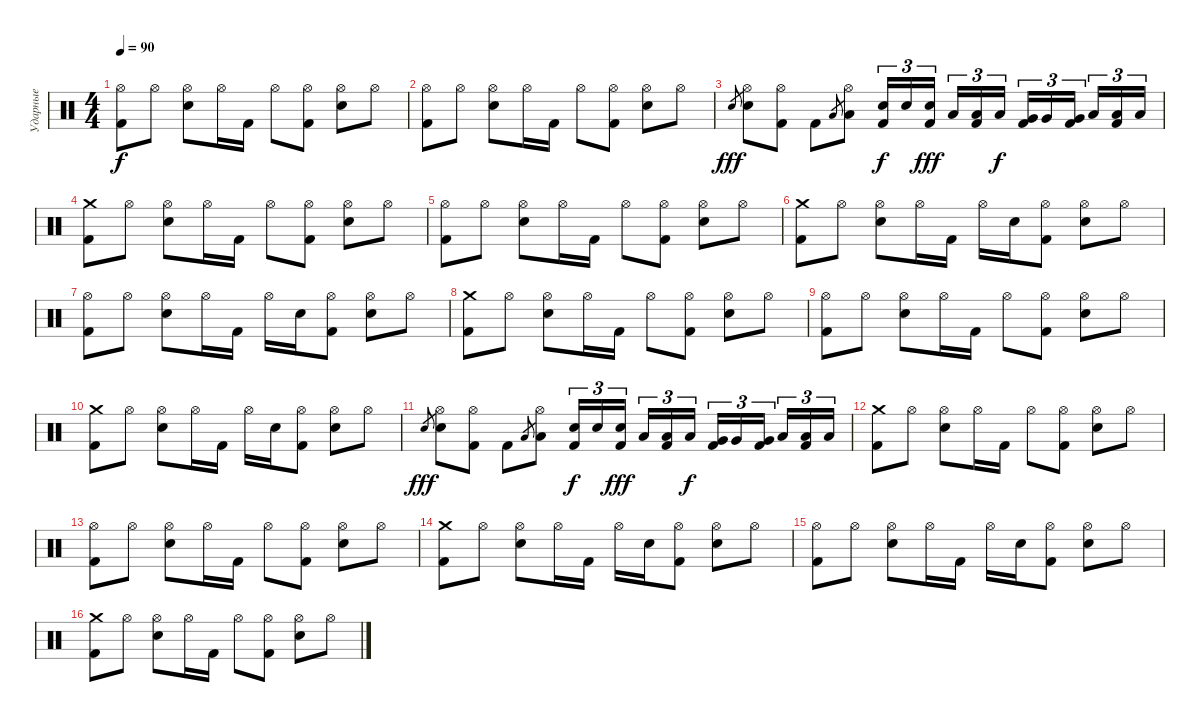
\track ("Ударные" "Ударные") {instrument percussion}
\staff {score}
\articulation defaults
\ts (4 4)
\tempo 90
\clef neutral
\ks c
("Hi-Hat (open)" "Kick (hit) 2").8{dy f} "Hi-Hat (open)".8 ("Hi-Hat (open)" "Snare (hit) 2").8 "Hi-Hat (open)".16 "Kick (hit) 2".16 "Hi-Hat (open)".8 ("Hi-Hat (open)" "Kick (hit) 2").8 ("Hi-Hat (open)" "Snare (hit) 2").8 "Hi-Hat (open)".8 |
("Hi-Hat (open)" "Kick (hit) 2").8 "Hi-Hat (open)".8 ("Hi-Hat (open)" "Snare (hit) 2").8 "Hi-Hat (open)".16 "Kick (hit) 2".16 "Hi-Hat (open)".8 ("Hi-Hat (open)" "Kick (hit) 2").8 ("Hi-Hat (open)" "Snare (hit) 2").8 "Hi-Hat (open)".8 |
"Snare (hit) 2".8{gr dy fff} ("Hi-Hat (open)" "Snare (hit) 2").8 ("Hi-Hat (open)" "Kick (hit) 2").8 "Kick (hit) 2".8 "Low Tom (hit)".8{gr} ("Hi-Hat (open)" "Low Tom (hit)").8 ("Snare (hit) 2" "Kick (hit) 2").16{tu (3 2) dy f} "Snare (hit) 2".16{tu (3 2)} ("Snare (hit) 2" "Kick (hit) 2").16{tu (3 2) dy fff beam splitsecondary} "Low Tom (hit)".16{tu (3 2)} ("Low Tom (hit)" "Kick (hit) 2").16{tu (3 2)} "Low Tom (hit)".16{tu (3 2) dy f} ("Very Low Tom (hit)" "Kick (hit) 2").16{tu (3 2)} "Very Low Tom (hit)".16{tu (3 2)} ("Very Low Tom (hit)" "Kick (hit) 2").16{tu (3 2) beam splitsecondary} "Low Floor Tom (hit)".16{tu (3 2)} ("Low Floor Tom (hit)" "Kick (hit) 2").16{tu (3 2)} "Low Floor Tom (hit)".16{tu (3 2)} |
("Crash medium (hit)" "Kick (hit) 2").8 "Hi-Hat (open)".8 ("Hi-Hat (open)" "Snare (hit) 2").8 "Hi-Hat (open)".16 "Kick (hit) 2".16 "Hi-Hat (open)".8 ("Hi-Hat (open)" "Kick (hit) 2").8 ("Hi-Hat (open)" "Snare (hit) 2").8 "Hi-Hat (open)".8 |
("Hi-Hat (open)" "Kick (hit) 2").8 "Hi-Hat (open)".8 ("Hi-Hat (open)" "Snare (hit) 2").8 "Hi-Hat (open)".16 "Kick (hit) 2".16 "Hi-Hat (open)".8 ("Hi-Hat (open)" "Kick (hit) 2").8 ("Hi-Hat (open)" "Snare (hit) 2").8 "Hi-Hat (open)".8 |
("Crash medium (hit)" "Kick (hit) 2").8 "Hi-Hat (open)".8 ("Hi-Hat (open)" "Snare (hit) 2").8 "Hi-Hat (open)".16 "Kick (hit) 2".16 "Hi-Hat (open)".16 "Snare (hit) 2".16 ("Hi-Hat (open)" "Kick (hit) 2").8 ("Hi-Hat (open)" "Snare (hit) 2").8 "Hi-Hat (open)".8 |
("Hi-Hat (open)" "Kick (hit) 2").8 "Hi-Hat (open)".8 ("Hi-Hat (open)" "Snare (hit) 2").8 "Hi-Hat (open)".16 "Kick (hit) 2".16 "Hi-Hat (open)".16 "Snare (hit) 2".16 ("Hi-Hat (open)" "Kick (hit) 2").8 ("Hi-Hat (open)" "Snare (hit) 2").8 "Hi-Hat (open)".8 |
("Crash medium (hit)" "Kick (hit) 2").8 "Hi-Hat (open)".8 ("Hi-Hat (open)" "Snare (hit) 2").8 "Hi-Hat (open)".16 "Kick (hit) 2".16 "Hi-Hat (open)".8 ("Hi-Hat (open)" "Kick (hit) 2").8 ("Hi-Hat (open)" "Snare (hit) 2").8 "Hi-Hat (open)".8 |
("Hi-Hat (open)" "Kick (hit) 2").8 "Hi-Hat (open)".8 ("Hi-Hat (open)" "Snare (hit) 2").8 "Hi-Hat (open)".16 "Kick (hit) 2".16 "Hi-Hat (open)".8 ("Hi-Hat (open)" "Kick (hit) 2").8 ("Hi-Hat (open)" "Snare (hit) 2").8 "Hi-Hat (open)".8 |
("Crash medium (hit)" "Kick (hit) 2").8 "Hi-Hat (open)".8 ("Hi-Hat (open)" "Snare (hit) 2").8 "Hi-Hat (open)".16 "Kick (hit) 2".16 "Hi-Hat (open)".16 "Snare (hit) 2".16 ("Hi-Hat (open)" "Kick (hit) 2").8 ("Hi-Hat (open)" "Snare (hit) 2").8 "Hi-Hat (open)".8 |
"Snare (hit) 2".8{gr dy fff} ("Hi-Hat (open)" "Snare (hit) 2").8 ("Hi-Hat (open)" "Kick (hit) 2").8 "Kick (hit) 2".8 "Low Tom (hit)".8{gr} ("Hi-Hat (open)" "Low Tom (hit)").8 ("Snare (hit) 2" "Kick (hit) 2").16{tu (3 2) dy f} "Snare (hit) 2".16{tu (3 2)} ("Snare (hit) 2" "Kick (hit) 2").16{tu (3 2) dy fff beam splitsecondary} "Low Tom (hit)".16{tu (3 2)} ("Low Tom (hit)" "Kick (hit) 2").16{tu (3 2)} "Low Tom (hit)".16{tu (3 2) dy f} ("Very Low Tom (hit)" "Kick (hit) 2").16{tu (3 2)} "Very Low Tom (hit)".16{tu (3 2)} ("Very Low Tom (hit)" "Kick (hit) 2").16{tu (3 2) beam splitsecondary} "Low Floor Tom (hit)".16{tu (3 2)} ("Low Floor Tom (hit)" "Kick (hit) 2").16{tu (3 2)} "Low Floor Tom (hit)".16{tu (3 2)} |
("Crash medium (hit)" "Kick (hit) 2").8 "Hi-Hat (open)".8 ("Hi-Hat (open)" "Snare (hit) 2").8 "Hi-Hat (open)".16 "Kick (hit) 2".16 "Hi-Hat (open)".8 ("Hi-Hat (open)" "Kick (hit) 2").8 ("Hi-Hat (open)" "Snare (hit) 2").8 "Hi-Hat (open)".8 |
("Hi-Hat (open)" "Kick (hit) 2").8 "Hi-Hat (open)".8 ("Hi-Hat (open)" "Snare (hit) 2").8 "Hi-Hat (open)".16 "Kick (hit) 2".16 "Hi-Hat (open)".8 ("Hi-Hat (open)" "Kick (hit) 2").8 ("Hi-Hat (open)" "Snare (hit) 2").8 "Hi-Hat (open)".8 |
("Crash medium (hit)" "Kick (hit) 2").8 "Hi-Hat (open)".8 ("Hi-Hat (open)" "Snare (hit) 2").8 "Hi-Hat (open)".16 "Kick (hit) 2".16 "Hi-Hat (open)".16 "Snare (hit) 2".16 ("Hi-Hat (open)" "Kick (hit) 2").8 ("Hi-Hat (open)" "Snare (hit) 2").8 "Hi-Hat (open)".8 |
("Hi-Hat (open)" "Kick (hit) 2").8 "Hi-Hat (open)".8 ("Hi-Hat (open)" "Snare (hit) 2").8 "Hi-Hat (open)".16 "Kick (hit) 2".16 "Hi-Hat (open)".16 "Snare (hit) 2".16 ("Hi-Hat (open)" "Kick (hit) 2").8 ("Hi-Hat (open)" "Snare (hit) 2").8 "Hi-Hat (open)".8 |
("Crash medium (hit)" "Kick (hit) 2").8 "Hi-Hat (open)".8 ("Hi-Hat (open)" "Snare (hit) 2").8 "Hi-Hat (open)".16 "Kick (hit) 2".16 "Hi-Hat (open)".8 ("Hi-Hat (open)" "Kick (hit) 2").8 ("Hi-Hat (open)" "Snare (hit) 2").8 "Hi-Hat (open)".8
